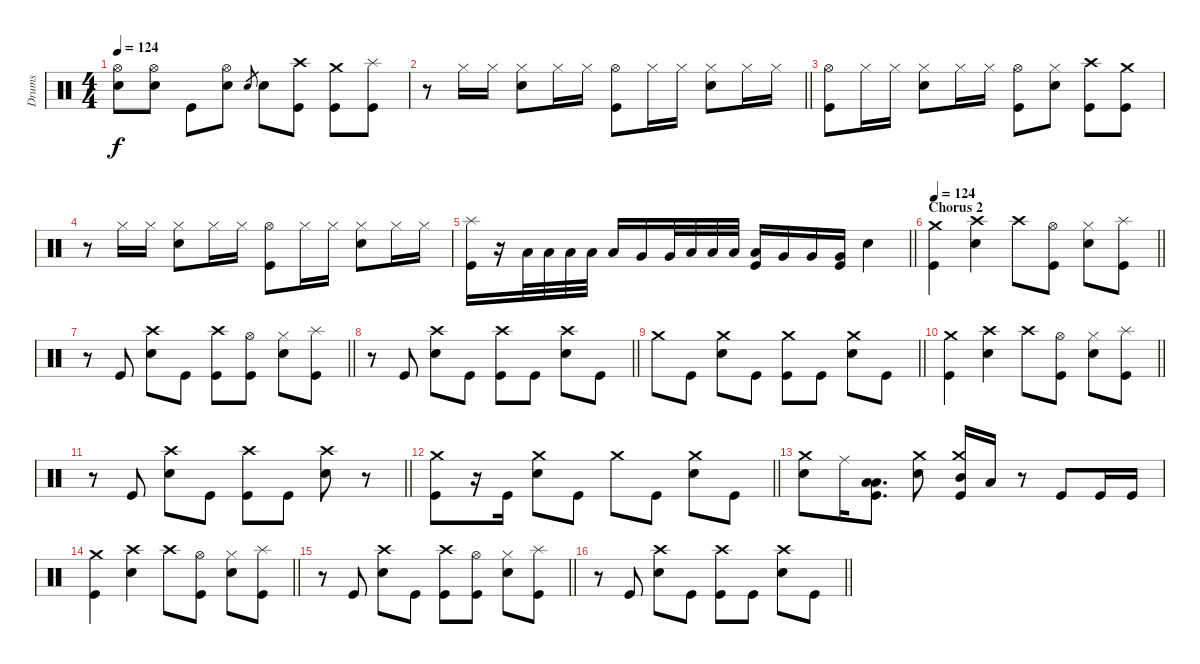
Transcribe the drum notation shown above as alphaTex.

\track ("Drums" "Drums") {instrument percussion}
\staff {score}
\articulation defaults
\ts (4 4)
\tempo 124
\clef neutral
\ks c
("Hi-Hat (open)" "Snare (hit) 2").8{dy f} ("Hi-Hat (open)" "Snare (hit) 2").8 "Kick (hit)".8 ("Hi-Hat (open)" "Snare (hit) 2").8 "Snare (hit) 2".8{gr} "Snare (hit) 2".8 ("Crash high (hit)" "Kick (hit)").8 ("Crash medium (hit)" "Kick (hit)").8 ("Splash (hit)" "Kick (hit)").8 |
\barLineRight lightlight
r.8 "Hi-Hat (closed)".16 "Hi-Hat (closed)".16 ("Hi-Hat (closed)" "Snare (hit) 2").8 "Hi-Hat (closed)".16 "Hi-Hat (closed)".16 ("Hi-Hat (open)" "Kick (hit)").8 "Hi-Hat (closed)".16 "Hi-Hat (closed)".16 ("Hi-Hat (closed)" "Snare (hit) 2").8 "Hi-Hat (closed)".16 "Hi-Hat (closed)".16 |
("Hi-Hat (open)" "Kick (hit)").8 "Hi-Hat (closed)".16 "Hi-Hat (closed)".16 ("Hi-Hat (closed)" "Snare (hit) 2").8 "Hi-Hat (closed)".16 "Hi-Hat (closed)".16 ("Hi-Hat (open)" "Kick (hit)").8 ("Hi-Hat (closed)" "Snare (hit) 2").8 ("Crash high (hit)" "Kick (hit)").8 ("Crash medium (hit)" "Kick (hit)").8 |
r.8 "Hi-Hat (closed)".16 "Hi-Hat (closed)".16 ("Hi-Hat (closed)" "Snare (hit) 2").8 "Hi-Hat (closed)".16 "Hi-Hat (closed)".16 ("Hi-Hat (open)" "Kick (hit)").8 "Hi-Hat (closed)".16 "Hi-Hat (closed)".16 ("Hi-Hat (closed)" "Snare (hit) 2").8 "Hi-Hat (closed)".16 "Hi-Hat (closed)".16 |
\barLineRight lightlight
("Splash (hit)" "Kick (hit)").16 r.16 "Low Tom (hit)".32 "Low Tom (hit)".32 "Low Tom (hit)".32 "Low Tom (hit)".32 "Low Tom (hit)".16 "Very Low Tom (hit)".16 "Very Low Tom (hit)".32 "Low Tom (hit)".32 "Low Tom (hit)".32 "Low Tom (hit)".32 ("Low Tom (hit)" "Kick (hit)").16 "Very Low Tom (hit)".16 "Very Low Tom (hit)".16 ("Very Low Tom (hit)" "Kick (hit)").16 "Snare (hit) 2".4 |
\section ("" "Chorus 2")
\tempo 124
\barLineRight lightlight
("Crash medium (hit)" "Kick (hit)").4 ("Crash high (hit)" "Snare (hit) 2").4 "Crash high (hit)".8 ("Hi-Hat (open)" "Kick (hit)").8 ("Hi-Hat (closed)" "Snare (hit) 2").8 ("Splash (hit)" "Kick (hit)").8 |
\barLineRight lightlight
r.8 "Kick (hit)".8 ("Crash high (hit)" "Snare (hit) 2").8 "Kick (hit)".8 ("Crash high (hit)" "Kick (hit)").8 ("Hi-Hat (open)" "Kick (hit)").8 ("Hi-Hat (closed)" "Snare (hit) 2").8 ("Splash (hit)" "Kick (hit)").8 |
\barLineRight lightlight
r.8 "Kick (hit)".8 ("Crash high (hit)" "Snare (hit) 2").8 "Kick (hit)".8 ("Crash high (hit)" "Kick (hit)").8 "Kick (hit)".8 ("Crash high (hit)" "Snare (hit) 2").8 "Kick (hit)".8 |
\barLineRight lightlight "Crash medium (hit)".8 "Kick (hit)".8
("Crash medium (hit)" "Snare (hit) 2").8 "Kick (hit)".8 ("Crash medium (hit)" "Kick (hit)").8 "Kick (hit)".8 ("Crash medium (hit)" "Snare (hit) 2").8 "Kick (hit)".8 |
\barLineRight lightlight
("Crash medium (hit)" "Kick (hit)").4 ("Crash high (hit)" "Snare (hit) 2").4 "Crash high (hit)".8 ("Hi-Hat (open)" "Kick (hit)").8 ("Hi-Hat (closed)" "Snare (hit) 2").8 ("Splash (hit)" "Kick (hit)").8 |
\barLineRight lightlight
r.8 "Kick (hit)".8 ("Crash high (hit)" "Snare (hit) 2").8 "Kick (hit)".8 ("Crash high (hit)" "Kick (hit)").8 "Kick (hit)".8 ("Crash high (hit)" "Snare (hit) 2").8 r.8 |
\barLineRight lightlight
("Crash medium (hit)" "Kick (hit)").8 r.16 "Kick (hit)".16 ("Crash medium (hit)" "Snare (hit) 2").8 "Kick (hit)".8 "Crash medium (hit)".8 "Kick (hit)".8 ("Crash medium (hit)" "Snare (hit) 2").8 "Kick (hit)".8 |
("Crash medium (hit)" "Snare (hit) 2").8 "Ride (middle)".16 ("Low Tom (hit)" "Low Tom (hit)" "Kick (hit)").8{d} ("Crash medium (hit)" "Snare (hit) 2").8 ("Crash medium (hit)" "Mid Tom (hit)" "Kick (hit)").16 "Low Tom (hit)".16 r.8 "Kick (hit)".8 "Kick (hit)".16 "Kick (hit)".16 |
\barLineRight lightlight
("Crash medium (hit)" "Kick (hit)").4 ("Crash high (hit)" "Snare (hit) 2").4 "Crash high (hit)".8 ("Hi-Hat (open)" "Kick (hit)").8 ("Hi-Hat (closed)" "Snare (hit) 2").8 ("Splash (hit)" "Kick (hit)").8 |
\barLineRight lightlight
r.8 "Kick (hit)".8 ("Crash high (hit)" "Snare (hit) 2").8 "Kick (hit)".8 ("Crash high (hit)" "Kick (hit)").8 ("Hi-Hat (open)" "Kick (hit)").8 ("Hi-Hat (closed)" "Snare (hit) 2").8 ("Splash (hit)" "Kick (hit)").8 |
\barLineRight lightlight
r.8 "Kick (hit)".8 ("Crash high (hit)" "Snare (hit) 2").8 "Kick (hit)".8 ("Crash high (hit)" "Kick (hit)").8 "Kick (hit)".8 ("Crash high (hit)" "Snare (hit) 2").8 "Kick (hit)".8
